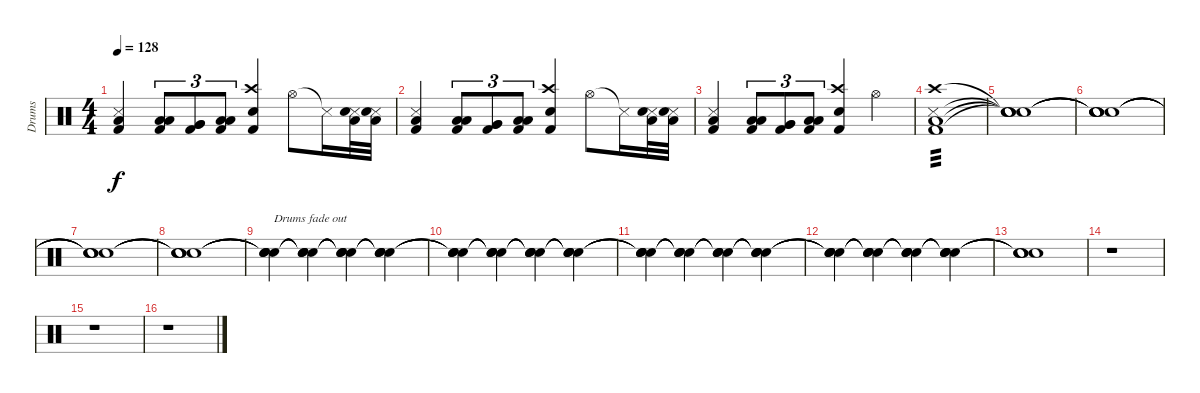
\track ("Drums" "Drums") {instrument percussion}
\staff {score}
\articulation defaults
\ts (4 4)
\tempo 128
\clef neutral
\ks c
("Snare (side stick) 3" "Low Floor Tom (hit)" "Kick (hit) 2").4{dy f} ("Low Tom (hit)" "Low Tom (hit)" "Kick (hit) 2").8{tu (3 2)} ("Very Low Tom (hit)" "Very Low Tom (hit)" "Kick (hit) 2").8{tu (3 2)} ("Low Floor Tom (hit)" "Low Floor Tom (hit)" "Kick (hit) 2").8{tu (3 2)} ("Crash high (hit)" "Electric Snare (hit)" "Kick (hit) 2").4 "Hi-Hat (open)".8 "Snare (side stick) 3"{t}.16 ("Snare (side stick) 3" "Low Floor Tom (hit)" "Electric Snare (hit)").32 ("Snare (side stick) 3" "Low Floor Tom (hit)" "Electric Snare (hit)").32 |
("Snare (side stick) 3" "Low Floor Tom (hit)" "Kick (hit) 2").4 ("Low Tom (hit)" "Low Tom (hit)" "Kick (hit) 2").8{tu (3 2)} ("Very Low Tom (hit)" "Very Low Tom (hit)" "Kick (hit) 2").8{tu (3 2)} ("Low Floor Tom (hit)" "Low Floor Tom (hit)" "Kick (hit) 2").8{tu (3 2)} ("Crash high (hit)" "Electric Snare (hit)" "Kick (hit) 2").4 "Hi-Hat (open)".8 "Snare (side stick) 3"{t}.16 ("Snare (side stick) 3" "Low Floor Tom (hit)" "Electric Snare (hit)").32 ("Snare (side stick) 3" "Low Floor Tom (hit)" "Electric Snare (hit)").32 |
("Snare (side stick) 3" "Low Floor Tom (hit)" "Kick (hit) 2").4 ("Low Tom (hit)" "Low Tom (hit)" "Kick (hit) 2").8{tu (3 2)} ("Very Low Tom (hit)" "Very Low Tom (hit)" "Kick (hit) 2").8{tu (3 2)} ("Low Floor Tom (hit)" "Low Floor Tom (hit)" "Kick (hit) 2").8{tu (3 2)} ("Crash high (hit)" "Electric Snare (hit)" "Kick (hit) 2").4 "Hi-Hat (open)".4 |
("Crash high (hit)" "Snare (side stick) 3" "Low Floor Tom (hit)" "Kick (hit) 2").1{tp 3} |
("Snare (hit)"{t} "Snare (hit)"{t} "Snare (hit)"{t} "Snare (hit)"{t}).1 |
("Snare (hit)"{t} "Snare (hit)"{t} "Snare (hit)"{t} "Snare (hit)"{t}).1 |
("Snare (hit)"{t} "Snare (hit)"{t} "Snare (hit)"{t} "Snare (hit)"{t}).1 |
("Snare (hit)"{t} "Snare (hit)"{t} "Snare (hit)"{t} "Snare (hit)"{t}).1 |
("Snare (hit)"{t} "Snare (hit)"{t} "Snare (hit)"{t} "Snare (hit)"{t}).4{txt "Drums fade out" volume 16} ("Snare (hit)"{t} "Snare (hit)"{t} "Snare (hit)"{t} "Snare (hit)"{t}).4{volume 15} ("Snare (hit)"{t} "Snare (hit)"{t} "Snare (hit)"{t} "Snare (hit)"{t}).4{volume 14} ("Snare (hit)"{t} "Snare (hit)"{t} "Snare (hit)"{t} "Snare (hit)"{t}).4{volume 13} |
("Snare (hit)"{t} "Snare (hit)"{t} "Snare (hit)"{t} "Snare (hit)"{t}).4{volume 12} ("Snare (hit)"{t} "Snare (hit)"{t} "Snare (hit)"{t} "Snare (hit)"{t}).4{volume 11} ("Snare (hit)"{t} "Snare (hit)"{t} "Snare (hit)"{t} "Snare (hit)"{t}).4{volume 10} ("Snare (hit)"{t} "Snare (hit)"{t} "Snare (hit)"{t} "Snare (hit)"{t}).4{volume 9} |
("Snare (hit)"{t} "Snare (hit)"{t} "Snare (hit)"{t} "Snare (hit)"{t}).4{volume 8} ("Snare (hit)"{t} "Snare (hit)"{t} "Snare (hit)"{t} "Snare (hit)"{t}).4{volume 7} ("Snare (hit)"{t} "Snare (hit)"{t} "Snare (hit)"{t} "Snare (hit)"{t}).4{volume 6} ("Snare (hit)"{t} "Snare (hit)"{t} "Snare (hit)"{t} "Snare (hit)"{t}).4{volume 5} |
("Snare (hit)"{t} "Snare (hit)"{t} "Snare (hit)"{t} "Snare (hit)"{t}).4{volume 4} ("Snare (hit)"{t} "Snare (hit)"{t} "Snare (hit)"{t} "Snare (hit)"{t}).4{volume 3} ("Snare (hit)"{t} "Snare (hit)"{t} "Snare (hit)"{t} "Snare (hit)"{t}).4{volume 2} ("Snare (hit)"{t} "Snare (hit)"{t} "Snare (hit)"{t} "Snare (hit)"{t}).4{volume 1} |
("Snare (hit)"{t} "Snare (hit)"{t} "Snare (hit)"{t} "Snare (hit)"{t}).1{volume 0} |
r.1 |
r.1 |
r.1
